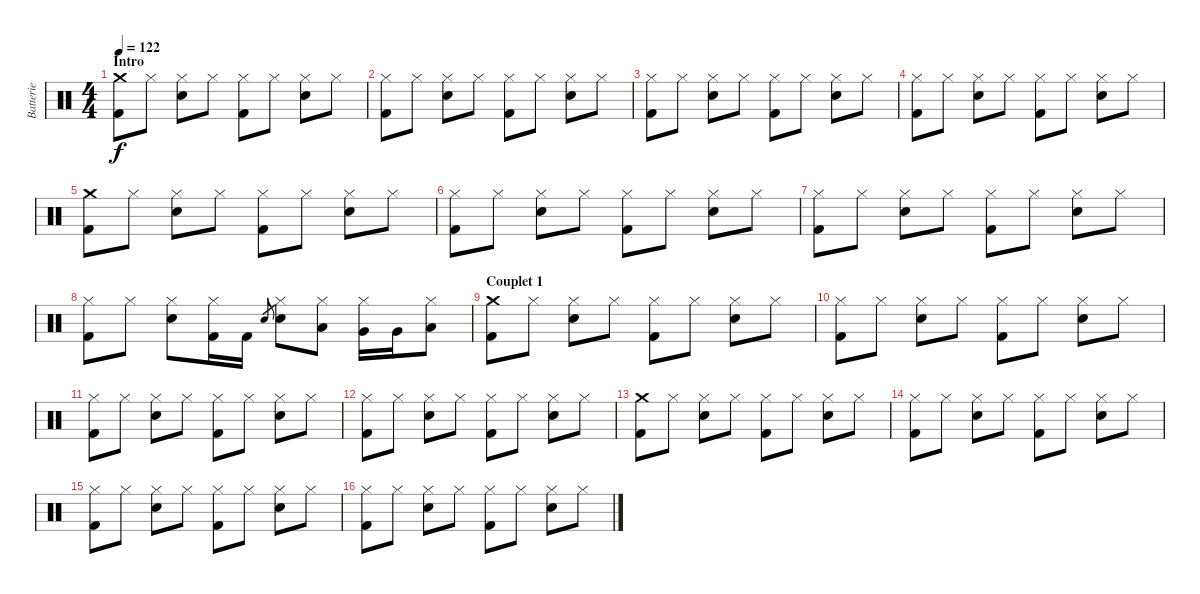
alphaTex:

\track ("Batterie" "Batterie") {instrument percussion}
\staff {score}
\articulation defaults
\ts (4 4)
\section ("" "Intro")
\tempo 122
\clef neutral
\ks c
("Crash medium (hit)" "Kick (hit) 2").8{dy f} "Hi-Hat (closed)".8 ("Hi-Hat (closed)" "Snare (hit) 2").8 "Hi-Hat (closed)".8 ("Hi-Hat (closed)" "Kick (hit) 2").8 "Hi-Hat (closed)".8 ("Hi-Hat (closed)" "Snare (hit) 2").8 "Hi-Hat (closed)".8 |
("Hi-Hat (closed)" "Kick (hit) 2").8 "Hi-Hat (closed)".8 ("Hi-Hat (closed)" "Snare (hit) 2").8 "Hi-Hat (closed)".8 ("Hi-Hat (closed)" "Kick (hit) 2").8 "Hi-Hat (closed)".8 ("Hi-Hat (closed)" "Snare (hit) 2").8 "Hi-Hat (closed)".8 |
("Hi-Hat (closed)" "Kick (hit) 2").8 "Hi-Hat (closed)".8 ("Hi-Hat (closed)" "Snare (hit) 2").8 "Hi-Hat (closed)".8 ("Hi-Hat (closed)" "Kick (hit) 2").8 "Hi-Hat (closed)".8 ("Hi-Hat (closed)" "Snare (hit) 2").8 "Hi-Hat (closed)".8 |
("Hi-Hat (closed)" "Kick (hit) 2").8 "Hi-Hat (closed)".8 ("Hi-Hat (closed)" "Snare (hit) 2").8 "Hi-Hat (closed)".8 ("Hi-Hat (closed)" "Kick (hit) 2").8 "Hi-Hat (closed)".8 ("Hi-Hat (closed)" "Snare (hit) 2").8 "Hi-Hat (closed)".8 |
("Crash medium (hit)" "Kick (hit) 2").8 "Hi-Hat (closed)".8 ("Hi-Hat (closed)" "Snare (hit) 2").8 "Hi-Hat (closed)".8 ("Hi-Hat (closed)" "Kick (hit) 2").8 "Hi-Hat (closed)".8 ("Hi-Hat (closed)" "Snare (hit) 2").8 "Hi-Hat (closed)".8 |
("Hi-Hat (closed)" "Kick (hit) 2").8 "Hi-Hat (closed)".8 ("Hi-Hat (closed)" "Snare (hit) 2").8 "Hi-Hat (closed)".8 ("Hi-Hat (closed)" "Kick (hit) 2").8 "Hi-Hat (closed)".8 ("Hi-Hat (closed)" "Snare (hit) 2").8 "Hi-Hat (closed)".8 |
("Hi-Hat (closed)" "Kick (hit) 2").8 "Hi-Hat (closed)".8 ("Hi-Hat (closed)" "Snare (hit) 2").8 "Hi-Hat (closed)".8 ("Hi-Hat (closed)" "Kick (hit) 2").8 "Hi-Hat (closed)".8 ("Hi-Hat (closed)" "Snare (hit) 2").8 "Hi-Hat (closed)".8 |
("Hi-Hat (closed)" "Kick (hit) 2").8 "Hi-Hat (closed)".8 ("Hi-Hat (closed)" "Snare (hit) 2").8 ("Hi-Hat (closed)" "Kick (hit) 2").16 "Kick (hit) 2".16 "Snare (hit) 2".8{gr} ("Hi-Hat (closed)" "Snare (hit) 2").8 ("Hi-Hat (closed)" "Low Tom (hit)").8 ("Hi-Hat (closed)" "Very Low Tom (hit)").16 "Very Low Tom (hit)".16 ("Hi-Hat (closed)" "Low Floor Tom (hit)").8 |
\section ("" "Couplet 1")
("Crash medium (hit)" "Kick (hit) 2").8 "Hi-Hat (closed)".8 ("Hi-Hat (closed)" "Snare (hit) 2").8 "Hi-Hat (closed)".8 ("Hi-Hat (closed)" "Kick (hit) 2").8 "Hi-Hat (closed)".8 ("Hi-Hat (closed)" "Snare (hit) 2").8 "Hi-Hat (closed)".8 |
("Hi-Hat (closed)" "Kick (hit) 2").8 "Hi-Hat (closed)".8 ("Hi-Hat (closed)" "Snare (hit) 2").8 "Hi-Hat (closed)".8 ("Hi-Hat (closed)" "Kick (hit) 2").8 "Hi-Hat (closed)".8 ("Hi-Hat (closed)" "Snare (hit) 2").8 "Hi-Hat (closed)".8 |
("Hi-Hat (closed)" "Kick (hit) 2").8 "Hi-Hat (closed)".8 ("Hi-Hat (closed)" "Snare (hit) 2").8 "Hi-Hat (closed)".8 ("Hi-Hat (closed)" "Kick (hit) 2").8 "Hi-Hat (closed)".8 ("Hi-Hat (closed)" "Snare (hit) 2").8 "Hi-Hat (closed)".8 |
("Hi-Hat (closed)" "Kick (hit) 2").8 "Hi-Hat (closed)".8 ("Hi-Hat (closed)" "Snare (hit) 2").8 "Hi-Hat (closed)".8 ("Hi-Hat (closed)" "Kick (hit) 2").8 "Hi-Hat (closed)".8 ("Hi-Hat (closed)" "Snare (hit) 2").8 "Hi-Hat (closed)".8 |
("Crash medium (hit)" "Kick (hit) 2").8 "Hi-Hat (closed)".8 ("Hi-Hat (closed)" "Snare (hit) 2").8 "Hi-Hat (closed)".8 ("Hi-Hat (closed)" "Kick (hit) 2").8 "Hi-Hat (closed)".8 ("Hi-Hat (closed)" "Snare (hit) 2").8 "Hi-Hat (closed)".8 |
("Hi-Hat (closed)" "Kick (hit) 2").8 "Hi-Hat (closed)".8 ("Hi-Hat (closed)" "Snare (hit) 2").8 "Hi-Hat (closed)".8 ("Hi-Hat (closed)" "Kick (hit) 2").8 "Hi-Hat (closed)".8 ("Hi-Hat (closed)" "Snare (hit) 2").8 "Hi-Hat (closed)".8 |
("Hi-Hat (closed)" "Kick (hit) 2").8 "Hi-Hat (closed)".8 ("Hi-Hat (closed)" "Snare (hit) 2").8 "Hi-Hat (closed)".8 ("Hi-Hat (closed)" "Kick (hit) 2").8 "Hi-Hat (closed)".8 ("Hi-Hat (closed)" "Snare (hit) 2").8 "Hi-Hat (closed)".8 |
("Hi-Hat (closed)" "Kick (hit) 2").8 "Hi-Hat (closed)".8 ("Hi-Hat (closed)" "Snare (hit) 2").8 "Hi-Hat (closed)".8 ("Hi-Hat (closed)" "Kick (hit) 2").8 "Hi-Hat (closed)".8 ("Hi-Hat (closed)" "Snare (hit) 2").8 "Hi-Hat (closed)".8
